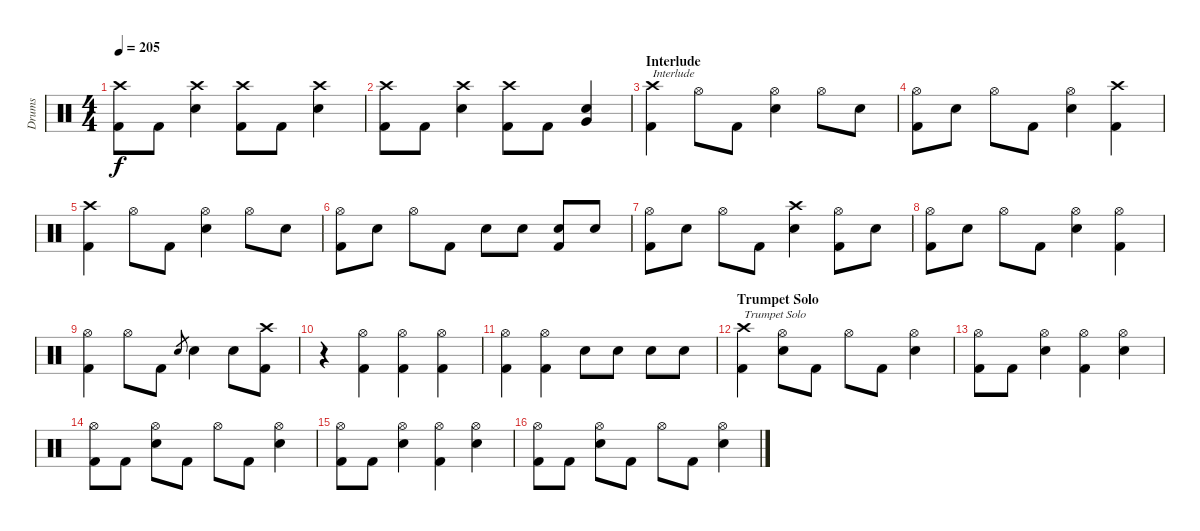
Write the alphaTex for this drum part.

\track ("Drums" "Drums") {instrument percussion}
\staff {score}
\articulation defaults
\ts (4 4)
\tempo 205
\clef neutral
\ks c
("Crash high (hit)" "Kick (hit) 2").8{dy f} "Kick (hit) 2".8 ("Crash high (hit)" "Electric Snare (hit)").4 ("Crash high (hit)" "Kick (hit) 2").8 "Kick (hit) 2".8 ("Crash high (hit)" "Electric Snare (hit)").4 |
("Crash high (hit)" "Kick (hit) 2").8 "Kick (hit) 2".8 ("Crash high (hit)" "Electric Snare (hit)").4 ("Crash high (hit)" "Kick (hit) 2").8 "Kick (hit) 2".8 ("Electric Snare (hit)" "Very Low Tom (hit)").4 |
\section ("" "Interlude")
("Crash high (hit)" "Kick (hit) 2").4{txt "Interlude"} "Hi-Hat (open)".8 "Kick (hit) 2".8 ("Hi-Hat (open)" "Electric Snare (hit)").4 "Hi-Hat (open)".8 "Electric Snare (hit)".8 |
("Hi-Hat (open)" "Kick (hit) 2").8 "Electric Snare (hit)".8 "Hi-Hat (open)".8 "Kick (hit) 2".8 ("Hi-Hat (open)" "Electric Snare (hit)").4 ("Crash high (hit)" "Kick (hit) 2").4 |
("Crash high (hit)" "Kick (hit) 2").4 "Hi-Hat (open)".8 "Kick (hit) 2".8 ("Hi-Hat (open)" "Electric Snare (hit)").4 "Hi-Hat (open)".8 "Electric Snare (hit)".8 |
("Hi-Hat (open)" "Kick (hit) 2").8 "Electric Snare (hit)".8 "Hi-Hat (open)".8 "Kick (hit) 2".8 "Electric Snare (hit)".8 "Electric Snare (hit)".8 ("Electric Snare (hit)" "Kick (hit) 2").8 "Electric Snare (hit)".8 |
("Hi-Hat (open)" "Kick (hit) 2").8 "Electric Snare (hit)".8 "Hi-Hat (open)".8 "Kick (hit) 2".8 ("Crash high (hit)" "Electric Snare (hit)").4 ("Hi-Hat (open)" "Kick (hit) 2").8 "Electric Snare (hit)".8 |
("Hi-Hat (open)" "Kick (hit) 2").8 "Electric Snare (hit)".8 "Hi-Hat (open)".8 "Kick (hit) 2".8 ("Hi-Hat (open)" "Electric Snare (hit)").4 ("Hi-Hat (open)" "Kick (hit) 2").4 |
("Hi-Hat (open)" "Kick (hit) 2").4 "Hi-Hat (open)".8 "Kick (hit) 2".8 "Electric Snare (hit)".8{gr} "Electric Snare (hit)".4 "Electric Snare (hit)".8 ("Crash high (hit)" "Kick (hit) 2").8 |
r.4 ("Hi-Hat (open)" "Kick (hit) 2").4 ("Hi-Hat (open)" "Kick (hit) 2").4 ("Hi-Hat (open)" "Kick (hit) 2").4 |
("Hi-Hat (open)" "Kick (hit) 2").4 ("Hi-Hat (open)" "Kick (hit) 2").4 "Electric Snare (hit)".8 "Electric Snare (hit)".8 "Electric Snare (hit)".8 "Electric Snare (hit)".8 |
\section ("" "Trumpet Solo")
("Crash high (hit)" "Kick (hit) 2").4{txt "Trumpet Solo"} ("Hi-Hat (open)" "Electric Snare (hit)").8 "Kick (hit) 2".8 "Hi-Hat (open)".8 "Kick (hit) 2".8 ("Hi-Hat (open)" "Electric Snare (hit)").4 |
("Hi-Hat (open)" "Kick (hit) 2").8 "Kick (hit) 2".8 ("Hi-Hat (open)" "Electric Snare (hit)").4 ("Hi-Hat (open)" "Kick (hit) 2").4 ("Hi-Hat (open)" "Electric Snare (hit)").4 |
("Hi-Hat (open)" "Kick (hit) 2").8 "Kick (hit) 2".8 ("Hi-Hat (open)" "Electric Snare (hit)").8 "Kick (hit) 2".8 "Hi-Hat (open)".8 "Kick (hit) 2".8 ("Hi-Hat (open)" "Electric Snare (hit)").4 |
("Hi-Hat (open)" "Kick (hit) 2").8 "Kick (hit) 2".8 ("Hi-Hat (open)" "Electric Snare (hit)").4 ("Hi-Hat (open)" "Kick (hit) 2").4 ("Hi-Hat (open)" "Electric Snare (hit)").4 |
("Hi-Hat (open)" "Kick (hit) 2").8 "Kick (hit) 2".8 ("Hi-Hat (open)" "Electric Snare (hit)").8 "Kick (hit) 2".8 "Hi-Hat (open)".8 "Kick (hit) 2".8 ("Hi-Hat (open)" "Electric Snare (hit)").4
